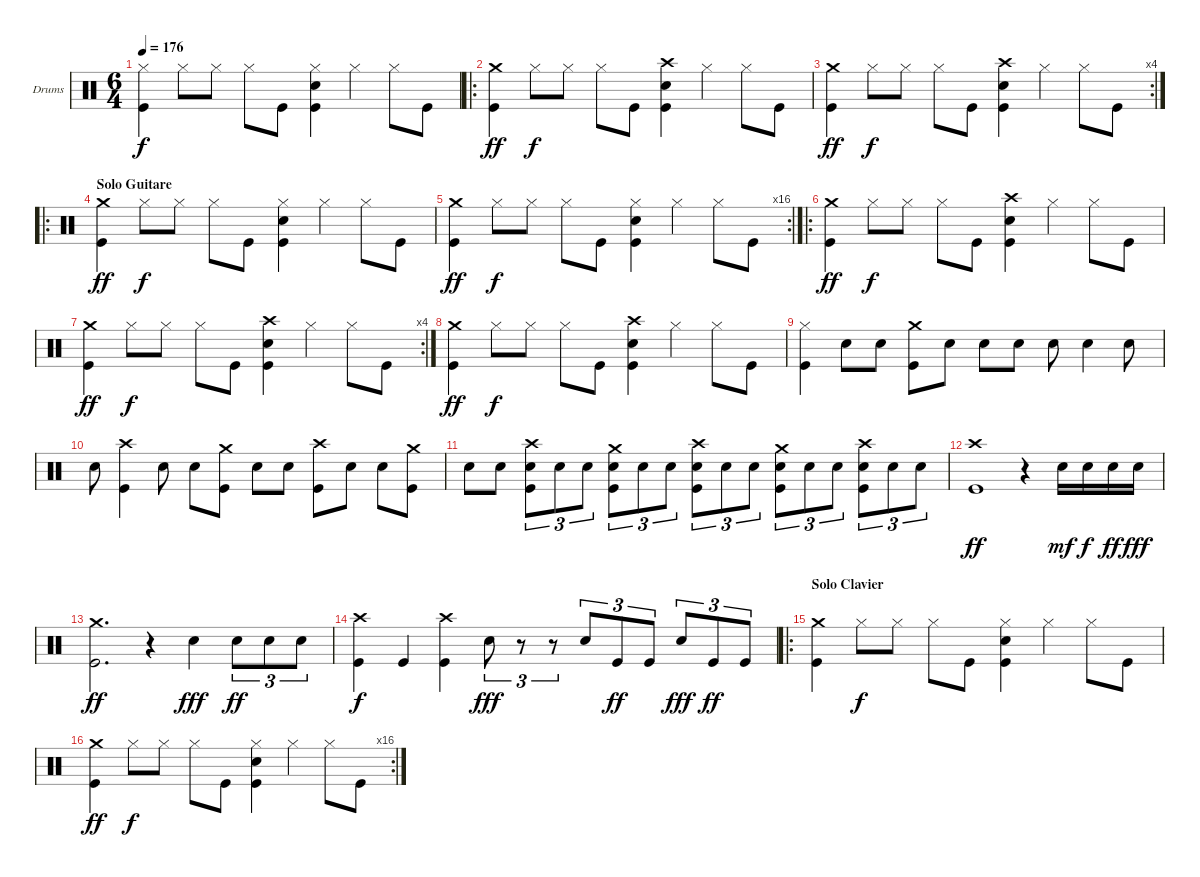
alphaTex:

\bracketExtendMode groupsimilarinstruments
\firstSystemTrackNameOrientation horizontal
\otherSystemsTrackNameOrientation horizontal
\track ("Drumkit" "Drums") {instrument percussion}
\staff {score}
\articulation defaults
\ts (6 4)
\tempo 176
\clef neutral
\ks c
("Hi-Hat (closed)" "Kick (hit)").4{dy f} "Hi-Hat (closed)".8 "Hi-Hat (closed)".8 "Hi-Hat (closed)".8 "Kick (hit)".8 ("Hi-Hat (closed)" "Snare (hit) 2" "Kick (hit)").4 "Hi-Hat (closed)".4 "Hi-Hat (closed)".8 "Kick (hit)".8 |
\ro
("Crash medium (hit)" "Kick (hit)").4{dy ff} "Hi-Hat (closed)".8{dy f} "Hi-Hat (closed)".8 "Hi-Hat (closed)".8 "Kick (hit)".8 ("Crash high (hit)" "Snare (hit) 2" "Kick (hit)").4 "Hi-Hat (closed)".4 "Hi-Hat (closed)".8 "Kick (hit)".8 |
\rc 4
("Crash medium (hit)" "Kick (hit)").4{dy ff} "Hi-Hat (closed)".8{dy f} "Hi-Hat (closed)".8 "Hi-Hat (closed)".8 "Kick (hit)".8 ("Crash high (hit)" "Snare (hit) 2" "Kick (hit)").4 "Hi-Hat (closed)".4 "Hi-Hat (closed)".8 "Kick (hit)".8 |
\ro
\section ("" "Solo Guitare")
("Crash medium (hit)" "Kick (hit)").4{dy ff} "Hi-Hat (closed)".8{dy f} "Hi-Hat (closed)".8 "Hi-Hat (closed)".8 "Kick (hit)".8 ("Hi-Hat (closed)" "Snare (hit) 2" "Kick (hit)").4 "Hi-Hat (closed)".4 "Hi-Hat (closed)".8 "Kick (hit)".8 |
\rc 16
("Crash medium (hit)" "Kick (hit)").4{dy ff} "Hi-Hat (closed)".8{dy f} "Hi-Hat (closed)".8 "Hi-Hat (closed)".8 "Kick (hit)".8 ("Hi-Hat (closed)" "Snare (hit) 2" "Kick (hit)").4 "Hi-Hat (closed)".4 "Hi-Hat (closed)".8 "Kick (hit)".8 |
\ro
("Crash medium (hit)" "Kick (hit)").4{dy ff} "Hi-Hat (closed)".8{dy f} "Hi-Hat (closed)".8 "Hi-Hat (closed)".8 "Kick (hit)".8 ("Crash high (hit)" "Snare (hit) 2" "Kick (hit)").4 "Hi-Hat (closed)".4 "Hi-Hat (closed)".8 "Kick (hit)".8 |
\rc 4
("Crash medium (hit)" "Kick (hit)").4{dy ff} "Hi-Hat (closed)".8{dy f} "Hi-Hat (closed)".8 "Hi-Hat (closed)".8 "Kick (hit)".8 ("Crash high (hit)" "Snare (hit) 2" "Kick (hit)").4 "Hi-Hat (closed)".4 "Hi-Hat (closed)".8 "Kick (hit)".8 |
("Crash medium (hit)" "Kick (hit)").4{dy ff} "Hi-Hat (closed)".8{dy f} "Hi-Hat (closed)".8 "Hi-Hat (closed)".8 "Kick (hit)".8 ("Crash high (hit)" "Snare (hit) 2" "Kick (hit)").4 "Hi-Hat (closed)".4 "Hi-Hat (closed)".8 "Kick (hit)".8 |
("Hi-Hat (closed)" "Kick (hit)").4 "Snare (hit) 2".8 "Snare (hit) 2".8 ("Crash medium (hit)" "Kick (hit)").8 "Snare (hit) 2".8 "Snare (hit) 2".8 "Snare (hit) 2".8 "Snare (hit) 2".8 "Snare (hit) 2".4 "Snare (hit) 2".8 |
"Snare (hit) 2".8 ("Crash high (hit)" "Kick (hit)").4 "Snare (hit) 2".8 "Snare (hit) 2".8 ("Crash medium (hit)" "Kick (hit)").8 "Snare (hit) 2".8 "Snare (hit) 2".8 ("Crash high (hit)" "Kick (hit)").8 "Snare (hit) 2".8 "Snare (hit) 2".8 ("Crash medium (hit)" "Kick (hit)").8 |
"Snare (hit) 2".8 "Snare (hit) 2".8 ("Crash high (hit)" "Snare (hit) 2" "Kick (hit)").8{tu (3 2)} "Snare (hit) 2".8{tu (3 2)} "Snare (hit) 2".8{tu (3 2)} ("Crash medium (hit)" "Snare (hit) 2" "Kick (hit)").8{tu (3 2)} "Snare (hit) 2".8{tu (3 2)} "Snare (hit) 2".8{tu (3 2)} ("Crash high (hit)" "Snare (hit) 2" "Kick (hit)").8{tu (3 2)} "Snare (hit) 2".8{tu (3 2)} "Snare (hit) 2".8{tu (3 2)} ("Crash medium (hit)" "Snare (hit) 2" "Kick (hit)").8{tu (3 2)} "Snare (hit) 2".8{tu (3 2)} "Snare (hit) 2".8{tu (3 2)} ("Crash high (hit)" "Snare (hit) 2" "Kick (hit)").8{tu (3 2)} "Snare (hit) 2".8{tu (3 2)} "Snare (hit) 2".8{tu (3 2)} |
("Crash high (hit)" "Kick (hit)").1{dy ff} r.4 "Snare (hit) 2".16{dy mf} "Snare (hit) 2".16{dy f} "Snare (hit) 2".16{dy ff} "Snare (hit) 2".16{dy fff} |
("Crash medium (hit)" "Kick (hit)").2{d dy ff} r.4 "Snare (hit) 2".4{dy fff} "Snare (hit) 2".8{tu (3 2) dy ff} "Snare (hit) 2".8{tu (3 2)} "Snare (hit) 2".8{tu (3 2)} |
("Crash high (hit)" "Kick (hit)").4{dy f} "Kick (hit)".4 ("Crash high (hit)" "Kick (hit)").4 "Snare (hit) 2".8{tu (3 2) dy fff} r.8{tu (3 2)} r.8{tu (3 2)} "Snare (hit) 2".8{tu (3 2)} "Kick (hit)".8{tu (3 2) dy ff} "Kick (hit)".8{tu (3 2)} "Snare (hit) 2".8{tu (3 2) dy fff} "Kick (hit)".8{tu (3 2) dy ff} "Kick (hit)".8{tu (3 2)} |
\ro
\section ("" "Solo Clavier")
("Crash medium (hit)" "Kick (hit)").4 "Hi-Hat (closed)".8{dy f} "Hi-Hat (closed)".8 "Hi-Hat (closed)".8 "Kick (hit)".8 ("Hi-Hat (closed)" "Snare (hit) 2" "Kick (hit)").4 "Hi-Hat (closed)".4 "Hi-Hat (closed)".8 "Kick (hit)".8 |
\rc 16
("Crash medium (hit)" "Kick (hit)").4{dy ff} "Hi-Hat (closed)".8{dy f} "Hi-Hat (closed)".8 "Hi-Hat (closed)".8 "Kick (hit)".8 ("Hi-Hat (closed)" "Snare (hit) 2" "Kick (hit)").4 "Hi-Hat (closed)".4 "Hi-Hat (closed)".8 "Kick (hit)".8
